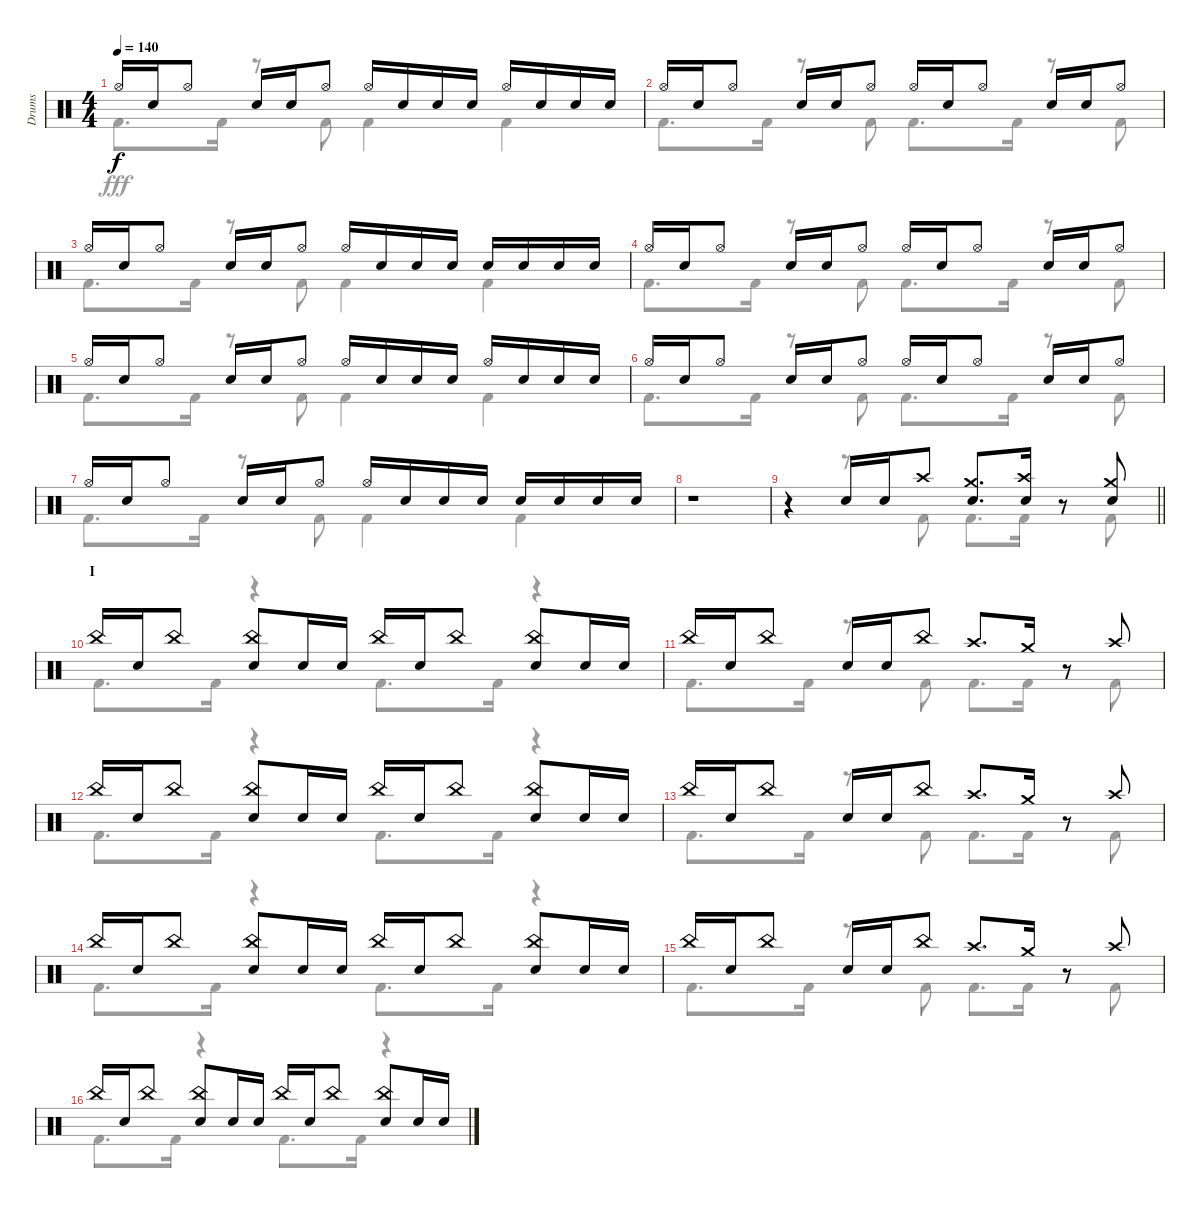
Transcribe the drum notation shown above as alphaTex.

\track ("Drums" "Drums") {instrument percussion}
\staff {score}
\articulation defaults
\voice
\ts (4 4)
\tempo 140
\clef neutral
\ks c "Hi-Hat (open)".16{dy f} "Snare (hit) 2".16 "Hi-Hat (open)".8 "Snare (hit) 2".16 "Snare (hit) 2".16 "Hi-Hat (open)".8 "Hi-Hat (open)".16 "Snare (hit) 2".16 "Snare (hit) 2".16 "Snare (hit) 2".16 "Hi-Hat (open)".16 "Snare (hit) 2".16 "Snare (hit) 2".16 "Snare (hit) 2".16
|
"Hi-Hat (open)".16 "Snare (hit) 2".16 "Hi-Hat (open)".8 "Snare (hit) 2".16 "Snare (hit) 2".16 "Hi-Hat (open)".8 "Hi-Hat (open)".16 "Snare (hit) 2".16 "Hi-Hat (open)".8 "Snare (hit) 2".16 "Snare (hit) 2".16 "Hi-Hat (open)".8 |
"Hi-Hat (open)".16 "Snare (hit) 2".16 "Hi-Hat (open)".8 "Snare (hit) 2".16 "Snare (hit) 2".16 "Hi-Hat (open)".8 "Hi-Hat (open)".16 "Snare (hit) 2".16 "Snare (hit) 2".16 "Snare (hit) 2".16 "Snare (hit) 2".16 "Snare (hit) 2".16 "Snare (hit) 2".16 "Snare (hit) 2".16 |
"Hi-Hat (open)".16 "Snare (hit) 2".16 "Hi-Hat (open)".8 "Snare (hit) 2".16 "Snare (hit) 2".16 "Hi-Hat (open)".8 "Hi-Hat (open)".16 "Snare (hit) 2".16 "Hi-Hat (open)".8 "Snare (hit) 2".16 "Snare (hit) 2".16 "Hi-Hat (open)".8 |
"Hi-Hat (open)".16 "Snare (hit) 2".16 "Hi-Hat (open)".8 "Snare (hit) 2".16 "Snare (hit) 2".16 "Hi-Hat (open)".8 "Hi-Hat (open)".16 "Snare (hit) 2".16 "Snare (hit) 2".16 "Snare (hit) 2".16 "Hi-Hat (open)".16 "Snare (hit) 2".16 "Snare (hit) 2".16 "Snare (hit) 2".16 |
"Hi-Hat (open)".16 "Snare (hit) 2".16 "Hi-Hat (open)".8 "Snare (hit) 2".16 "Snare (hit) 2".16 "Hi-Hat (open)".8 "Hi-Hat (open)".16 "Snare (hit) 2".16 "Hi-Hat (open)".8 "Snare (hit) 2".16 "Snare (hit) 2".16 "Hi-Hat (open)".8 |
"Hi-Hat (open)".16 "Snare (hit) 2".16 "Hi-Hat (open)".8 "Snare (hit) 2".16 "Snare (hit) 2".16 "Hi-Hat (open)".8 "Hi-Hat (open)".16 "Snare (hit) 2".16 "Snare (hit) 2".16 "Snare (hit) 2".16 "Snare (hit) 2".16 "Snare (hit) 2".16 "Snare (hit) 2".16 "Snare (hit) 2".16 |
r.1 |
\barLineRight lightlight
r.4 "Snare (hit) 2".16 "Snare (hit) 2".16 "Crash high (hit)".8 ("Crash medium (hit)" "Snare (hit) 2").8{d} ("Crash high (hit)" "Snare (hit) 2").16 r.8 ("Crash medium (hit)" "Snare (hit) 2").8 |
\section ("" "I")
"China (hit)".16 "Snare (hit) 2".16 "China (hit)".8 ("China (hit)" "Snare (hit) 2").8 "Snare (hit) 2".16 "Snare (hit) 2".16 "China (hit)".16 "Snare (hit) 2".16 "China (hit)".8 ("China (hit)" "Snare (hit) 2").8 "Snare (hit) 2".16 "Snare (hit) 2".16 |
"China (hit)".16 "Snare (hit) 2".16 "China (hit)".8 "Snare (hit) 2".16 "Snare (hit) 2".16 "China (hit)".8 "Crash high (hit)".8{d} "Crash medium (hit)".16 r.8 "Crash high (hit)".8 |
"China (hit)".16 "Snare (hit) 2".16 "China (hit)".8 ("China (hit)" "Snare (hit) 2").8 "Snare (hit) 2".16 "Snare (hit) 2".16 "China (hit)".16 "Snare (hit) 2".16 "China (hit)".8 ("China (hit)" "Snare (hit) 2").8 "Snare (hit) 2".16 "Snare (hit) 2".16 |
"China (hit)".16 "Snare (hit) 2".16 "China (hit)".8 "Snare (hit) 2".16 "Snare (hit) 2".16 "China (hit)".8 "Crash high (hit)".8{d} "Crash medium (hit)".16 r.8 "Crash high (hit)".8 |
"China (hit)".16 "Snare (hit) 2".16 "China (hit)".8 ("China (hit)" "Snare (hit) 2").8 "Snare (hit) 2".16 "Snare (hit) 2".16 "China (hit)".16 "Snare (hit) 2".16 "China (hit)".8 ("China (hit)" "Snare (hit) 2").8 "Snare (hit) 2".16 "Snare (hit) 2".16 |
"China (hit)".16 "Snare (hit) 2".16 "China (hit)".8 "Snare (hit) 2".16 "Snare (hit) 2".16 "China (hit)".8 "Crash high (hit)".8{d} "Crash medium (hit)".16 r.8 "Crash high (hit)".8 |
"China (hit)".16 "Snare (hit) 2".16 "China (hit)".8 ("China (hit)" "Snare (hit) 2").8 "Snare (hit) 2".16 "Snare (hit) 2".16 "China (hit)".16 "Snare (hit) 2".16 "China (hit)".8 ("China (hit)" "Snare (hit) 2").8 "Snare (hit) 2".16 "Snare (hit) 2".16
\voice
\clef neutral
\ottava regular
\simile none
\ks c "Kick (hit) 2".8{d dy fff} "Kick (hit) 2".16
r.8 "Kick (hit) 2".8 "Kick (hit) 2".4 "Kick (hit) 2".4 |
"Kick (hit) 2".8{d} "Kick (hit) 2".16 r.8 "Kick (hit) 2".8 "Kick (hit) 2".8{d} "Kick (hit) 2".16 r.8 "Kick (hit) 2".8 |
"Kick (hit) 2".8{d} "Kick (hit) 2".16 r.8 "Kick (hit) 2".8 "Kick (hit) 2".4 "Kick (hit) 2".4 |
"Kick (hit) 2".8{d} "Kick (hit) 2".16 r.8 "Kick (hit) 2".8 "Kick (hit) 2".8{d} "Kick (hit) 2".16 r.8 "Kick (hit) 2".8 |
"Kick (hit) 2".8{d} "Kick (hit) 2".16 r.8 "Kick (hit) 2".8 "Kick (hit) 2".4 "Kick (hit) 2".4 |
"Kick (hit) 2".8{d} "Kick (hit) 2".16 r.8 "Kick (hit) 2".8 "Kick (hit) 2".8{d} "Kick (hit) 2".16 r.8 "Kick (hit) 2".8 |
"Kick (hit) 2".8{d} "Kick (hit) 2".16 r.8 "Kick (hit) 2".8 "Kick (hit) 2".4 "Kick (hit) 2".4 |
r.1 |
\barLineRight lightlight
r.4 r.8 "Kick (hit) 2".8 "Kick (hit) 2".8{d} "Kick (hit) 2".16 r.8 "Kick (hit) 2".8 |
"Kick (hit) 2".8{d} "Kick (hit) 2".16 r.4 "Kick (hit) 2".8{d} "Kick (hit) 2".16 r.4 |
"Kick (hit) 2".8{d} "Kick (hit) 2".16 r.8 "Kick (hit) 2".8 "Kick (hit) 2".8{d} "Kick (hit) 2".16 r.8 "Kick (hit) 2".8 |
"Kick (hit) 2".8{d} "Kick (hit) 2".16 r.4 "Kick (hit) 2".8{d} "Kick (hit) 2".16 r.4 |
"Kick (hit) 2".8{d} "Kick (hit) 2".16 r.8 "Kick (hit) 2".8 "Kick (hit) 2".8{d} "Kick (hit) 2".16 r.8 "Kick (hit) 2".8 |
"Kick (hit) 2".8{d} "Kick (hit) 2".16 r.4 "Kick (hit) 2".8{d} "Kick (hit) 2".16 r.4 |
"Kick (hit) 2".8{d} "Kick (hit) 2".16 r.8 "Kick (hit) 2".8 "Kick (hit) 2".8{d} "Kick (hit) 2".16 r.8 "Kick (hit) 2".8 |
"Kick (hit) 2".8{d} "Kick (hit) 2".16 r.4 "Kick (hit) 2".8{d} "Kick (hit) 2".16 r.4
